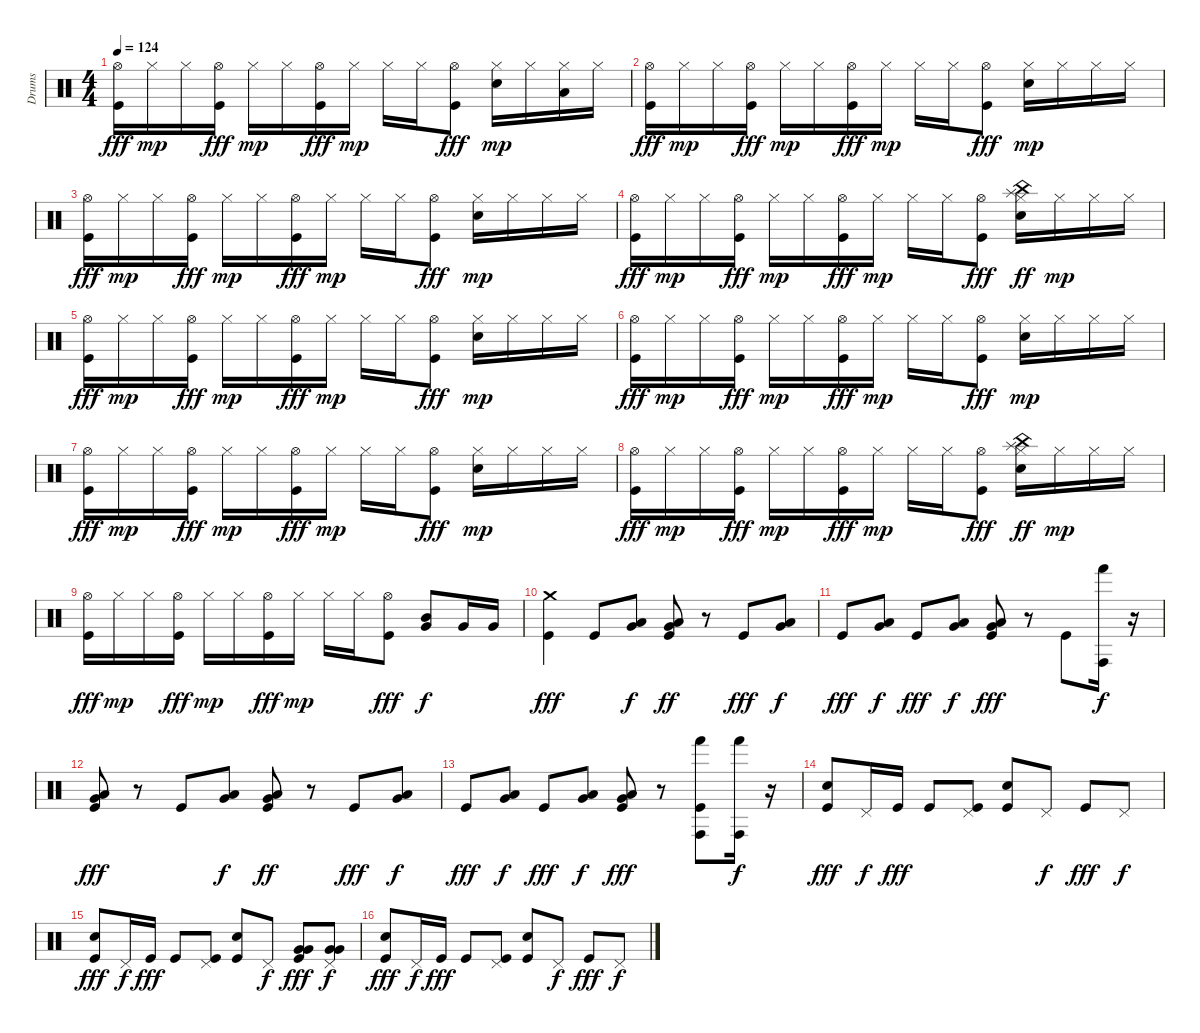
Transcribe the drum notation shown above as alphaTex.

\track ("Drums" "Drums") {instrument percussion}
\staff {score}
\articulation defaults
\ts (4 4)
\tempo 124
\clef neutral
\ks c
("Kick (hit)" "Hi-Hat (open)").16{dy fff} "Hi-Hat (closed)".16{dy mp} "Hi-Hat (closed)".16 ("Kick (hit)" "Hi-Hat (open)").16{dy fff} "Hi-Hat (closed)".16{dy mp} "Hi-Hat (closed)".16 ("Kick (hit)" "Hi-Hat (open)").16{dy fff} "Hi-Hat (closed)".16{dy mp} "Hi-Hat (closed)".16 "Hi-Hat (closed)".16 ("Kick (hit)" "Hi-Hat (open)").8{dy fff} ("Electric Snare (hit)" "Hi-Hat (closed)").16{dy mp} "Hi-Hat (closed)".16 ("Hi-Hat (closed)" "Low Tom (hit)").16 "Hi-Hat (closed)".16 |
("Kick (hit)" "Hi-Hat (open)").16{dy fff} "Hi-Hat (closed)".16{dy mp} "Hi-Hat (closed)".16 ("Kick (hit)" "Hi-Hat (open)").16{dy fff} "Hi-Hat (closed)".16{dy mp} "Hi-Hat (closed)".16 ("Kick (hit)" "Hi-Hat (open)").16{dy fff} "Hi-Hat (closed)".16{dy mp} "Hi-Hat (closed)".16 "Hi-Hat (closed)".16 ("Kick (hit)" "Hi-Hat (open)").8{dy fff} ("Electric Snare (hit)" "Hi-Hat (closed)").16{dy mp} "Hi-Hat (closed)".16 "Hi-Hat (closed)".16 "Hi-Hat (closed)".16 |
("Kick (hit)" "Hi-Hat (open)").16{dy fff} "Hi-Hat (closed)".16{dy mp} "Hi-Hat (closed)".16 ("Kick (hit)" "Hi-Hat (open)").16{dy fff} "Hi-Hat (closed)".16{dy mp} "Hi-Hat (closed)".16 ("Kick (hit)" "Hi-Hat (open)").16{dy fff} "Hi-Hat (closed)".16{dy mp} "Hi-Hat (closed)".16 "Hi-Hat (closed)".16 ("Kick (hit)" "Hi-Hat (open)").8{dy fff} ("Electric Snare (hit)" "Hi-Hat (closed)").16{dy mp} "Hi-Hat (closed)".16 "Hi-Hat (closed)".16 "Hi-Hat (closed)".16 |
("Kick (hit)" "Hi-Hat (open)").16{dy fff} "Hi-Hat (closed)".16{dy mp} "Hi-Hat (closed)".16 ("Kick (hit)" "Hi-Hat (open)").16{dy fff} "Hi-Hat (closed)".16{dy mp} "Hi-Hat (closed)".16 ("Kick (hit)" "Hi-Hat (open)").16{dy fff} "Hi-Hat (closed)".16{dy mp} "Hi-Hat (closed)".16 "Hi-Hat (closed)".16 ("Kick (hit)" "Hi-Hat (open)").8{dy fff} ("Electric Snare (hit)" "Hi-Hat (closed)" "Splash (hit)" "China (hit)").16{dy ff} "Hi-Hat (closed)".16{dy mp} "Hi-Hat (closed)".16 "Hi-Hat (closed)".16 |
("Kick (hit)" "Hi-Hat (open)").16{dy fff} "Hi-Hat (closed)".16{dy mp} "Hi-Hat (closed)".16 ("Kick (hit)" "Hi-Hat (open)").16{dy fff} "Hi-Hat (closed)".16{dy mp} "Hi-Hat (closed)".16 ("Kick (hit)" "Hi-Hat (open)").16{dy fff} "Hi-Hat (closed)".16{dy mp} "Hi-Hat (closed)".16 "Hi-Hat (closed)".16 ("Kick (hit)" "Hi-Hat (open)").8{dy fff} ("Electric Snare (hit)" "Hi-Hat (closed)").16{dy mp} "Hi-Hat (closed)".16 "Hi-Hat (closed)".16 "Hi-Hat (closed)".16 |
("Kick (hit)" "Hi-Hat (open)").16{dy fff} "Hi-Hat (closed)".16{dy mp} "Hi-Hat (closed)".16 ("Kick (hit)" "Hi-Hat (open)").16{dy fff} "Hi-Hat (closed)".16{dy mp} "Hi-Hat (closed)".16 ("Kick (hit)" "Hi-Hat (open)").16{dy fff} "Hi-Hat (closed)".16{dy mp} "Hi-Hat (closed)".16 "Hi-Hat (closed)".16 ("Kick (hit)" "Hi-Hat (open)").8{dy fff} ("Electric Snare (hit)" "Hi-Hat (closed)").16{dy mp} "Hi-Hat (closed)".16 "Hi-Hat (closed)".16 "Hi-Hat (closed)".16 |
("Kick (hit)" "Hi-Hat (open)").16{dy fff} "Hi-Hat (closed)".16{dy mp} "Hi-Hat (closed)".16 ("Kick (hit)" "Hi-Hat (open)").16{dy fff} "Hi-Hat (closed)".16{dy mp} "Hi-Hat (closed)".16 ("Kick (hit)" "Hi-Hat (open)").16{dy fff} "Hi-Hat (closed)".16{dy mp} "Hi-Hat (closed)".16 "Hi-Hat (closed)".16 ("Kick (hit)" "Hi-Hat (open)").8{dy fff} ("Electric Snare (hit)" "Hi-Hat (closed)").16{dy mp} "Hi-Hat (closed)".16 "Hi-Hat (closed)".16 "Hi-Hat (closed)".16 |
("Kick (hit)" "Hi-Hat (open)").16{dy fff} "Hi-Hat (closed)".16{dy mp} "Hi-Hat (closed)".16 ("Kick (hit)" "Hi-Hat (open)").16{dy fff} "Hi-Hat (closed)".16{dy mp} "Hi-Hat (closed)".16 ("Kick (hit)" "Hi-Hat (open)").16{dy fff} "Hi-Hat (closed)".16{dy mp} "Hi-Hat (closed)".16 "Hi-Hat (closed)".16 ("Kick (hit)" "Hi-Hat (open)").8{dy fff} ("Electric Snare (hit)" "Hi-Hat (closed)" "Splash (hit)" "China (hit)").16{dy ff} "Hi-Hat (closed)".16{dy mp} "Hi-Hat (closed)".16 "Hi-Hat (closed)".16 |
("Kick (hit)" "Hi-Hat (open)").16{dy fff} "Hi-Hat (closed)".16{dy mp} "Hi-Hat (closed)".16 ("Kick (hit)" "Hi-Hat (open)").16{dy fff} "Hi-Hat (closed)".16{dy mp} "Hi-Hat (closed)".16 ("Kick (hit)" "Hi-Hat (open)").16{dy fff} "Hi-Hat (closed)".16{dy mp} "Hi-Hat (closed)".16 "Hi-Hat (closed)".16 ("Kick (hit)" "Hi-Hat (open)").8{dy fff} ("Mid Tom (hit)" "Very Low Tom (hit)").8{dy f} "Very Low Tom (hit)".16 "Very Low Tom (hit)".16 |
("Kick (hit)" "Crash medium (hit)").4{dy fff} "Kick (hit)".8 ("Very Low Tom (hit)" "Low Tom (hit)").8{dy f} ("Kick (hit)" "Very Low Tom (hit)" "Low Tom (hit)").8{dy ff} r.8 "Kick (hit)".8{dy fff} ("Very Low Tom (hit)" "Low Tom (hit)").8{dy f} |
"Kick (hit)".8{dy fff} ("Very Low Tom (hit)" "Low Tom (hit)").8{dy f} "Kick (hit)".8{dy fff} ("Very Low Tom (hit)" "Low Tom (hit)").8{dy f} ("Kick (hit)" "Very Low Tom (hit)" "Low Tom (hit)").8{dy fff} r.8 "Kick (hit)".8 ("Conga high (hit)" "Hand (hit)").16{dy f} r.16 |
("Kick (hit)" "Very Low Tom (hit)" "Low Tom (hit)").8{dy fff} r.8 "Kick (hit)".8 ("Very Low Tom (hit)" "Low Tom (hit)").8{dy f} ("Kick (hit)" "Very Low Tom (hit)" "Low Tom (hit)").8{dy ff} r.8 "Kick (hit)".8{dy fff} ("Very Low Tom (hit)" "Low Tom (hit)").8{dy f} |
"Kick (hit)".8{dy fff} ("Very Low Tom (hit)" "Low Tom (hit)").8{dy f} "Kick (hit)".8{dy fff} ("Very Low Tom (hit)" "Low Tom (hit)").8{dy f} ("Kick (hit)" "Very Low Tom (hit)" "Low Tom (hit)").8{dy fff} r.8 ("Kick (hit)" "Hand (hit)" "Conga high (hit)").8 ("Conga high (hit)" "Hand (hit)").16{dy f} r.16 |
("Kick (hit)" "Electric Snare (hit)").8{dy fff} "Pedal Hi-Hat (hit)".16{dy f} "Kick (hit)".16{dy fff} "Kick (hit)".8 ("Kick (hit)" "Pedal Hi-Hat (hit)").8 ("Kick (hit)" "Electric Snare (hit)").8 "Pedal Hi-Hat (hit)".8{dy f} "Kick (hit)".8{dy fff} "Pedal Hi-Hat (hit)".8{dy f} |
("Kick (hit)" "Electric Snare (hit)").8{dy fff} "Pedal Hi-Hat (hit)".16{dy f} "Kick (hit)".16{dy fff} "Kick (hit)".8 ("Kick (hit)" "Pedal Hi-Hat (hit)").8 ("Kick (hit)" "Electric Snare (hit)").8 "Pedal Hi-Hat (hit)".8{dy f} ("Kick (hit)" "Very Low Tom (hit)" "Very Low Tom (hit)").8{dy fff} ("Pedal Hi-Hat (hit)" "Very Low Tom (hit)" "Very Low Tom (hit)").8{dy f} |
("Kick (hit)" "Electric Snare (hit)").8{dy fff} "Pedal Hi-Hat (hit)".16{dy f} "Kick (hit)".16{dy fff} "Kick (hit)".8 ("Kick (hit)" "Pedal Hi-Hat (hit)").8 ("Kick (hit)" "Electric Snare (hit)").8 "Pedal Hi-Hat (hit)".8{dy f} "Kick (hit)".8{dy fff} "Pedal Hi-Hat (hit)".8{dy f}
